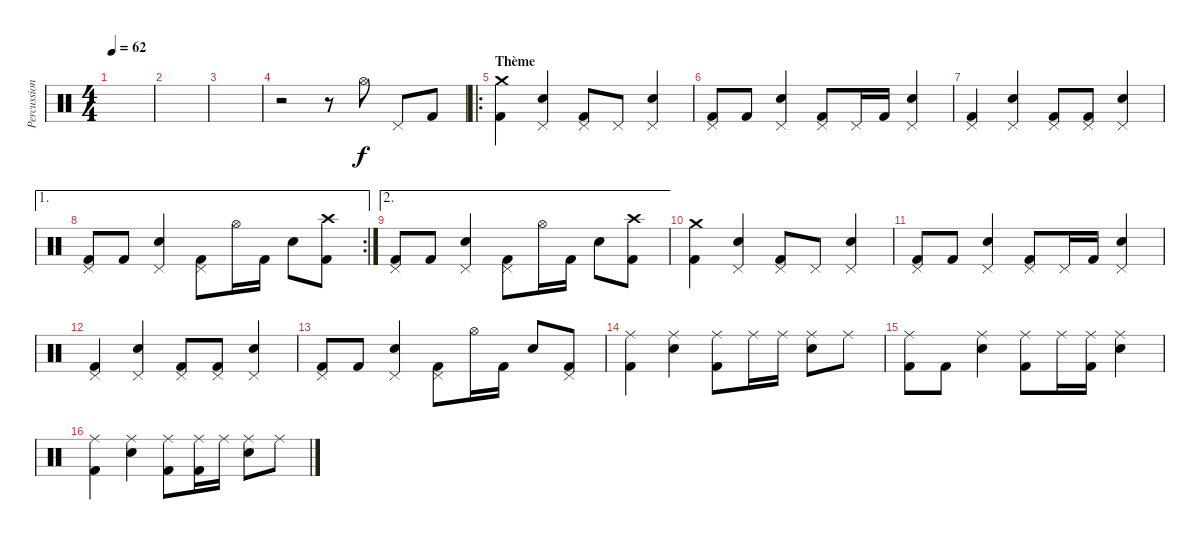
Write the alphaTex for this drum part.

\track ("Percussions" "Percussion") {instrument percussion}
\staff {score}
\articulation defaults
\ts (4 4)
\tempo 62
\clef neutral
\ks c
|
|
|
r.2 r.8 "Hi-Hat (open)".8 "Pedal Hi-Hat (hit)".8 "Kick (hit) 2".8 |
\ro
\section ("" "Thème")
("Crash medium (hit)" "Kick (hit) 2").4 ("Pedal Hi-Hat (hit)" "Snare (hit) 2").4 ("Pedal Hi-Hat (hit)" "Kick (hit) 2").8 "Pedal Hi-Hat (hit)".8 ("Pedal Hi-Hat (hit)" "Snare (hit) 2").4 |
("Pedal Hi-Hat (hit)" "Kick (hit) 2").8 "Kick (hit) 2".8 ("Pedal Hi-Hat (hit)" "Snare (hit) 2").4 ("Pedal Hi-Hat (hit)" "Kick (hit) 2").8 "Pedal Hi-Hat (hit)".16 "Kick (hit) 2".16 ("Pedal Hi-Hat (hit)" "Snare (hit) 2").4 |
("Pedal Hi-Hat (hit)" "Kick (hit) 2").4 ("Pedal Hi-Hat (hit)" "Snare (hit) 2").4 ("Pedal Hi-Hat (hit)" "Kick (hit) 2").8 ("Pedal Hi-Hat (hit)" "Kick (hit) 2").8 ("Pedal Hi-Hat (hit)" "Snare (hit) 2").4 |
\ae 1
\rc 2
("Pedal Hi-Hat (hit)" "Kick (hit) 2").8 "Kick (hit) 2".8 ("Pedal Hi-Hat (hit)" "Snare (hit) 2").4 ("Pedal Hi-Hat (hit)" "Kick (hit) 2").8 "Hi-Hat (open)".16 "Kick (hit) 2".16 "Snare (hit) 2".8 ("Crash high (hit)" "Kick (hit) 2").8 |
\ae 2
("Pedal Hi-Hat (hit)" "Kick (hit) 2").8 "Kick (hit) 2".8 ("Pedal Hi-Hat (hit)" "Snare (hit) 2").4 ("Pedal Hi-Hat (hit)" "Kick (hit) 2").8 "Hi-Hat (open)".16 "Kick (hit) 2".16 "Snare (hit) 2".8 ("Crash high (hit)" "Kick (hit) 2").8 |
("Crash medium (hit)" "Kick (hit) 2").4 ("Pedal Hi-Hat (hit)" "Snare (hit) 2").4 ("Pedal Hi-Hat (hit)" "Kick (hit) 2").8 "Pedal Hi-Hat (hit)".8 ("Pedal Hi-Hat (hit)" "Snare (hit) 2").4 |
("Pedal Hi-Hat (hit)" "Kick (hit) 2").8 "Kick (hit) 2".8 ("Pedal Hi-Hat (hit)" "Snare (hit) 2").4 ("Pedal Hi-Hat (hit)" "Kick (hit) 2").8 "Pedal Hi-Hat (hit)".16 "Kick (hit) 2".16 ("Pedal Hi-Hat (hit)" "Snare (hit) 2").4 |
("Pedal Hi-Hat (hit)" "Kick (hit) 2").4 ("Pedal Hi-Hat (hit)" "Snare (hit) 2").4 ("Pedal Hi-Hat (hit)" "Kick (hit) 2").8 ("Pedal Hi-Hat (hit)" "Kick (hit) 2").8 ("Pedal Hi-Hat (hit)" "Snare (hit) 2").4 |
("Pedal Hi-Hat (hit)" "Kick (hit) 2").8 "Kick (hit) 2".8 ("Pedal Hi-Hat (hit)" "Snare (hit) 2").4 ("Pedal Hi-Hat (hit)" "Kick (hit) 2").8 "Hi-Hat (open)".16 "Kick (hit) 2".16 "Snare (hit) 2".8 ("Pedal Hi-Hat (hit)" "Kick (hit) 2").8 |
("Ride (middle)" "Kick (hit) 2").4 ("Ride (middle)" "Snare (hit) 2").4 ("Ride (middle)" "Kick (hit) 2").8 "Ride (middle)".16 "Ride (middle)".16 ("Ride (middle)" "Snare (hit) 2").8 "Ride (middle)".8 |
("Ride (middle)" "Kick (hit) 2").8 "Kick (hit) 2".8 ("Ride (middle)" "Snare (hit) 2").4 ("Ride (middle)" "Kick (hit) 2").8 "Ride (middle)".16 ("Ride (middle)" "Kick (hit) 2").16 ("Ride (middle)" "Snare (hit) 2").4 |
("Ride (middle)" "Kick (hit) 2").4 ("Ride (middle)" "Snare (hit) 2").4 ("Ride (middle)" "Kick (hit) 2").8 ("Ride (middle)" "Kick (hit) 2").16 "Ride (middle)".16 ("Ride (middle)" "Snare (hit) 2").8 "Ride (middle)".8
